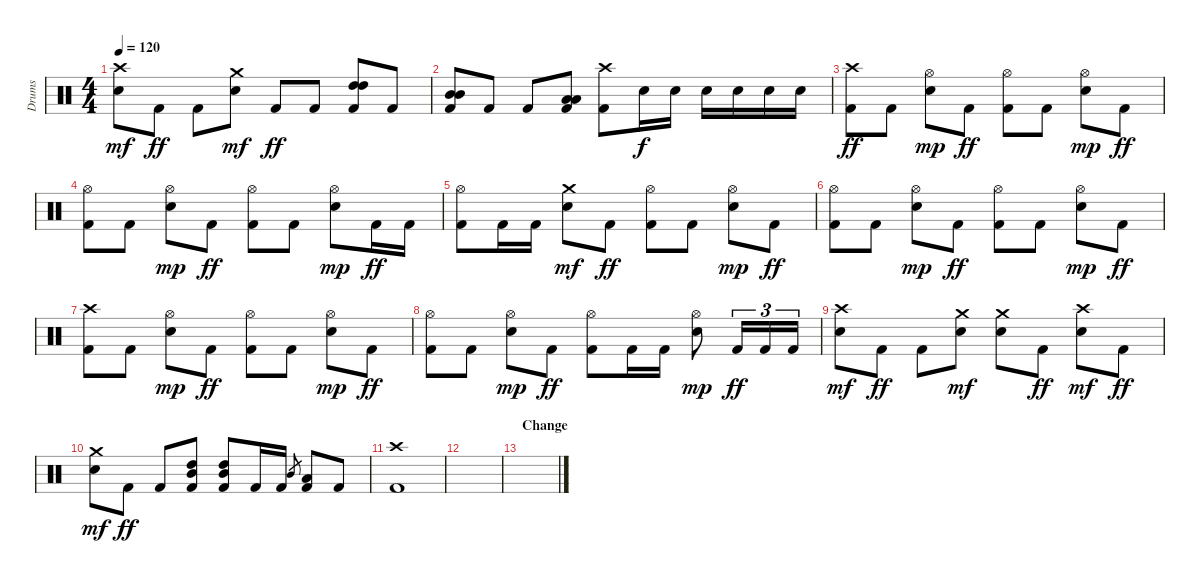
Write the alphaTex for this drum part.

\track ("Drums" "Drums") {instrument percussion}
\staff {score}
\articulation defaults
\ts (4 4)
\tempo 120
\clef neutral
\ks c
("Crash high (hit)" "Electric Snare (hit)").8{dy mf} "Kick (hit) 2".8{dy ff} "Kick (hit) 2".8 ("Crash medium (hit)" "Electric Snare (hit)").8{dy mf} "Kick (hit) 2".8{dy ff} "Kick (hit) 2".8 ("High Tom (hit)" "High Tom (hit)" "Kick (hit) 2").8 "Kick (hit) 2".8 |
("Mid Tom (hit)" "Mid Tom (hit)" "Kick (hit) 2").8 "Kick (hit) 2".8 "Kick (hit) 2".8 ("Low Tom (hit)" "Low Tom (hit)" "Kick (hit) 2").8 ("Crash high (hit)" "Kick (hit) 2").8 "Electric Snare (hit)".16{dy f} "Electric Snare (hit)".16 "Electric Snare (hit)".16 "Electric Snare (hit)".16 "Electric Snare (hit)".16 "Electric Snare (hit)".16 |
("Crash high (hit)" "Kick (hit) 2").8{dy ff} "Kick (hit) 2".8 ("Hi-Hat (open)" "Electric Snare (hit)").8{dy mp} "Kick (hit) 2".8{dy ff} ("Hi-Hat (open)" "Kick (hit) 2").8 "Kick (hit) 2".8 ("Hi-Hat (open)" "Electric Snare (hit)").8{dy mp} "Kick (hit) 2".8{dy ff} |
("Hi-Hat (open)" "Kick (hit) 2").8 "Kick (hit) 2".8 ("Hi-Hat (open)" "Electric Snare (hit)").8{dy mp} "Kick (hit) 2".8{dy ff} ("Hi-Hat (open)" "Kick (hit) 2").8 "Kick (hit) 2".8 ("Hi-Hat (open)" "Electric Snare (hit)").8{dy mp} "Kick (hit) 2".16{dy ff} "Kick (hit) 2".16 |
("Hi-Hat (open)" "Kick (hit) 2").8 "Kick (hit) 2".16 "Kick (hit) 2".16 ("Crash medium (hit)" "Electric Snare (hit)").8{dy mf} "Kick (hit) 2".8{dy ff} ("Hi-Hat (open)" "Kick (hit) 2").8 "Kick (hit) 2".8 ("Hi-Hat (open)" "Electric Snare (hit)").8{dy mp} "Kick (hit) 2".8{dy ff} |
("Hi-Hat (open)" "Kick (hit) 2").8 "Kick (hit) 2".8 ("Hi-Hat (open)" "Electric Snare (hit)").8{dy mp} "Kick (hit) 2".8{dy ff} ("Hi-Hat (open)" "Kick (hit) 2").8 "Kick (hit) 2".8 ("Hi-Hat (open)" "Electric Snare (hit)").8{dy mp} "Kick (hit) 2".8{dy ff} |
("Crash high (hit)" "Kick (hit) 2").8 "Kick (hit) 2".8 ("Hi-Hat (open)" "Electric Snare (hit)").8{dy mp} "Kick (hit) 2".8{dy ff} ("Hi-Hat (open)" "Kick (hit) 2").8 "Kick (hit) 2".8 ("Hi-Hat (open)" "Electric Snare (hit)").8{dy mp} "Kick (hit) 2".8{dy ff} |
("Hi-Hat (open)" "Kick (hit) 2").8 "Kick (hit) 2".8 ("Hi-Hat (open)" "Electric Snare (hit)").8{dy mp} "Kick (hit) 2".8{dy ff} ("Hi-Hat (open)" "Kick (hit) 2").8 "Kick (hit) 2".16 "Kick (hit) 2".16 ("Hi-Hat (open)" "Electric Snare (hit)").8{dy mp} "Kick (hit) 2".16{tu (3 2) dy ff} "Kick (hit) 2".16{tu (3 2)} "Kick (hit) 2".16{tu (3 2)} |
("Crash high (hit)" "Electric Snare (hit)").8{dy mf} "Kick (hit) 2".8{dy ff} "Kick (hit) 2".8 ("Crash medium (hit)" "Electric Snare (hit)").8{dy mf} ("Crash medium (hit)" "Electric Snare (hit)").8 "Kick (hit) 2".8{dy ff} ("Crash high (hit)" "Electric Snare (hit)").8{dy mf} "Kick (hit) 2".8{dy ff} |
("Crash medium (hit)" "Electric Snare (hit)").8{dy mf} "Kick (hit) 2".8{dy ff} "Kick (hit) 2".8 ("High Tom (hit)" "Mid Tom (hit)" "Kick (hit) 2").8 ("High Tom (hit)" "Mid Tom (hit)" "Kick (hit) 2").8 "Kick (hit) 2".16 "Kick (hit) 2".16 "Mid Tom (hit)".8{gr} ("Low Tom (hit)" "Kick (hit) 2").8 "Kick (hit) 2".8 |
\section ("" "")
("Crash high (hit)" "Kick (hit) 2").1 |
|
\section ("" "Change")
